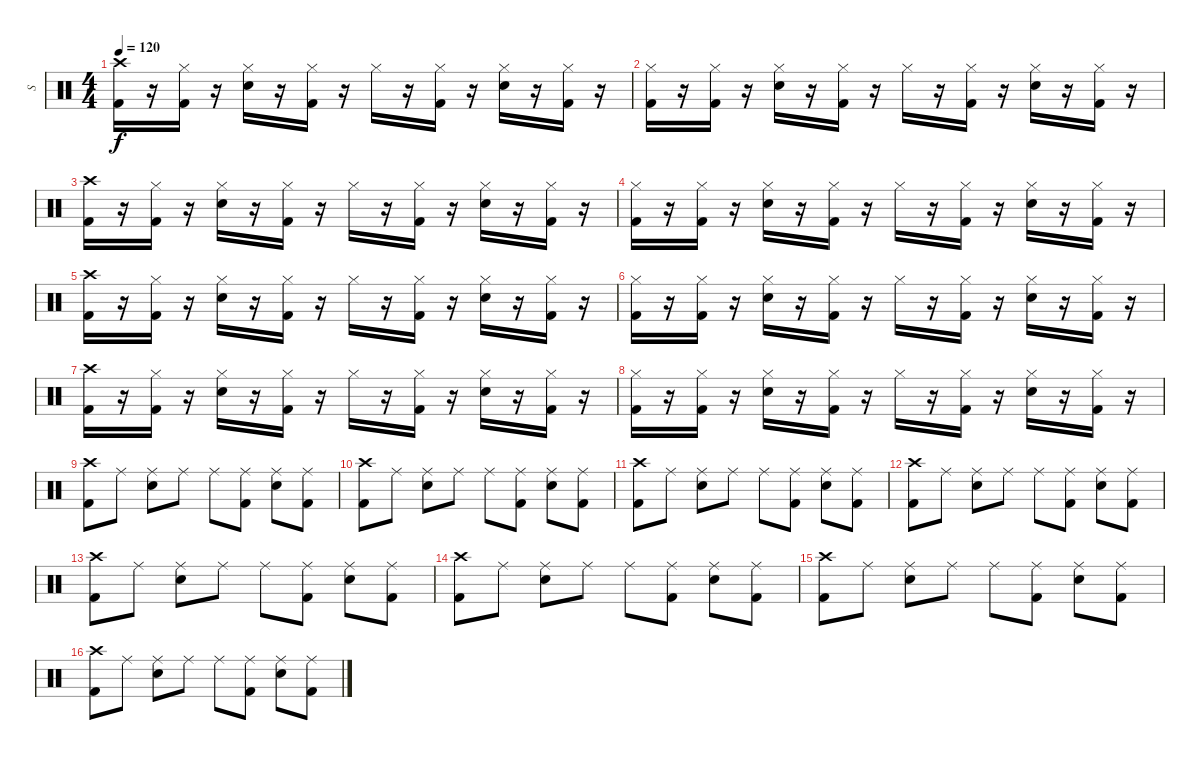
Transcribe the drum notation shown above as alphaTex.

\track ("  S" "  S") {instrument percussion}
\staff {score}
\articulation defaults
\ts (4 4)
\tempo 120
\clef neutral
\ks c
("Crash high (hit)" "Kick (hit) 2").16{dy f} r.16 ("Hi-Hat (closed)" "Kick (hit) 2").16 r.16 ("Hi-Hat (closed)" "Snare (hit) 2").16 r.16 ("Hi-Hat (closed)" "Kick (hit) 2").16 r.16 "Hi-Hat (closed)".16 r.16 ("Hi-Hat (closed)" "Kick (hit) 2").16 r.16 ("Hi-Hat (closed)" "Snare (hit) 2").16 r.16 ("Hi-Hat (closed)" "Kick (hit) 2").16 r.16 |
("Hi-Hat (closed)" "Kick (hit) 2").16 r.16 ("Hi-Hat (closed)" "Kick (hit) 2").16 r.16 ("Hi-Hat (closed)" "Snare (hit) 2").16 r.16 ("Hi-Hat (closed)" "Kick (hit) 2").16 r.16 "Hi-Hat (closed)".16 r.16 ("Hi-Hat (closed)" "Kick (hit) 2").16 r.16 ("Hi-Hat (closed)" "Snare (hit) 2").16 r.16 ("Hi-Hat (closed)" "Kick (hit) 2").16 r.16 |
("Crash high (hit)" "Kick (hit) 2").16 r.16 ("Hi-Hat (closed)" "Kick (hit) 2").16 r.16 ("Hi-Hat (closed)" "Snare (hit) 2").16 r.16 ("Hi-Hat (closed)" "Kick (hit) 2").16 r.16 "Hi-Hat (closed)".16 r.16 ("Hi-Hat (closed)" "Kick (hit) 2").16 r.16 ("Hi-Hat (closed)" "Snare (hit) 2").16 r.16 ("Hi-Hat (closed)" "Kick (hit) 2").16 r.16 |
("Hi-Hat (closed)" "Kick (hit) 2").16 r.16 ("Hi-Hat (closed)" "Kick (hit) 2").16 r.16 ("Hi-Hat (closed)" "Snare (hit) 2").16 r.16 ("Hi-Hat (closed)" "Kick (hit) 2").16 r.16 "Hi-Hat (closed)".16 r.16 ("Hi-Hat (closed)" "Kick (hit) 2").16 r.16 ("Hi-Hat (closed)" "Snare (hit) 2").16 r.16 ("Hi-Hat (closed)" "Kick (hit) 2").16 r.16 |
("Crash high (hit)" "Kick (hit) 2").16 r.16 ("Hi-Hat (closed)" "Kick (hit) 2").16 r.16 ("Hi-Hat (closed)" "Snare (hit) 2").16 r.16 ("Hi-Hat (closed)" "Kick (hit) 2").16 r.16 "Hi-Hat (closed)".16 r.16 ("Hi-Hat (closed)" "Kick (hit) 2").16 r.16 ("Hi-Hat (closed)" "Snare (hit) 2").16 r.16 ("Hi-Hat (closed)" "Kick (hit) 2").16 r.16 |
("Hi-Hat (closed)" "Kick (hit) 2").16 r.16 ("Hi-Hat (closed)" "Kick (hit) 2").16 r.16 ("Hi-Hat (closed)" "Snare (hit) 2").16 r.16 ("Hi-Hat (closed)" "Kick (hit) 2").16 r.16 "Hi-Hat (closed)".16 r.16 ("Hi-Hat (closed)" "Kick (hit) 2").16 r.16 ("Hi-Hat (closed)" "Snare (hit) 2").16 r.16 ("Hi-Hat (closed)" "Kick (hit) 2").16 r.16 |
("Crash high (hit)" "Kick (hit) 2").16 r.16 ("Hi-Hat (closed)" "Kick (hit) 2").16 r.16 ("Hi-Hat (closed)" "Snare (hit) 2").16 r.16 ("Hi-Hat (closed)" "Kick (hit) 2").16 r.16 "Hi-Hat (closed)".16 r.16 ("Hi-Hat (closed)" "Kick (hit) 2").16 r.16 ("Hi-Hat (closed)" "Snare (hit) 2").16 r.16 ("Hi-Hat (closed)" "Kick (hit) 2").16 r.16 |
("Hi-Hat (closed)" "Kick (hit) 2").16 r.16 ("Hi-Hat (closed)" "Kick (hit) 2").16 r.16 ("Hi-Hat (closed)" "Snare (hit) 2").16 r.16 ("Hi-Hat (closed)" "Kick (hit) 2").16 r.16 "Hi-Hat (closed)".16 r.16 ("Hi-Hat (closed)" "Kick (hit) 2").16 r.16 ("Hi-Hat (closed)" "Snare (hit) 2").16 r.16 ("Hi-Hat (closed)" "Kick (hit) 2").16 r.16 |
("Crash high (hit)" "Kick (hit) 2").8 "Ride (middle)".8 ("Ride (middle)" "Snare (hit) 2").8 "Ride (middle)".8 "Ride (middle)".8 ("Ride (middle)" "Kick (hit) 2").8 ("Ride (middle)" "Snare (hit) 2").8 ("Ride (middle)" "Kick (hit) 2").8 |
("Crash high (hit)" "Kick (hit) 2").8 "Ride (middle)".8 ("Ride (middle)" "Snare (hit) 2").8 "Ride (middle)".8 "Ride (middle)".8 ("Ride (middle)" "Kick (hit) 2").8 ("Ride (middle)" "Snare (hit) 2").8 ("Ride (middle)" "Kick (hit) 2").8 |
("Crash high (hit)" "Kick (hit) 2").8 "Ride (middle)".8 ("Ride (middle)" "Snare (hit) 2").8 "Ride (middle)".8 "Ride (middle)".8 ("Ride (middle)" "Kick (hit) 2").8 ("Ride (middle)" "Snare (hit) 2").8 ("Ride (middle)" "Kick (hit) 2").8 |
("Crash high (hit)" "Kick (hit) 2").8 "Ride (middle)".8 ("Ride (middle)" "Snare (hit) 2").8 "Ride (middle)".8 "Ride (middle)".8 ("Ride (middle)" "Kick (hit) 2").8 ("Ride (middle)" "Snare (hit) 2").8 ("Ride (middle)" "Kick (hit) 2").8 |
("Crash high (hit)" "Kick (hit) 2").8 "Ride (middle)".8 ("Ride (middle)" "Snare (hit) 2").8 "Ride (middle)".8 "Ride (middle)".8 ("Ride (middle)" "Kick (hit) 2").8 ("Ride (middle)" "Snare (hit) 2").8 ("Ride (middle)" "Kick (hit) 2").8 |
("Crash high (hit)" "Kick (hit) 2").8 "Ride (middle)".8 ("Ride (middle)" "Snare (hit) 2").8 "Ride (middle)".8 "Ride (middle)".8 ("Ride (middle)" "Kick (hit) 2").8 ("Ride (middle)" "Snare (hit) 2").8 ("Ride (middle)" "Kick (hit) 2").8 |
("Crash high (hit)" "Kick (hit) 2").8 "Ride (middle)".8 ("Ride (middle)" "Snare (hit) 2").8 "Ride (middle)".8 "Ride (middle)".8 ("Ride (middle)" "Kick (hit) 2").8 ("Ride (middle)" "Snare (hit) 2").8 ("Ride (middle)" "Kick (hit) 2").8 |
("Crash high (hit)" "Kick (hit) 2").8 "Ride (middle)".8 ("Ride (middle)" "Snare (hit) 2").8 "Ride (middle)".8 "Ride (middle)".8 ("Ride (middle)" "Kick (hit) 2").8 ("Ride (middle)" "Snare (hit) 2").8 ("Ride (middle)" "Kick (hit) 2").8
